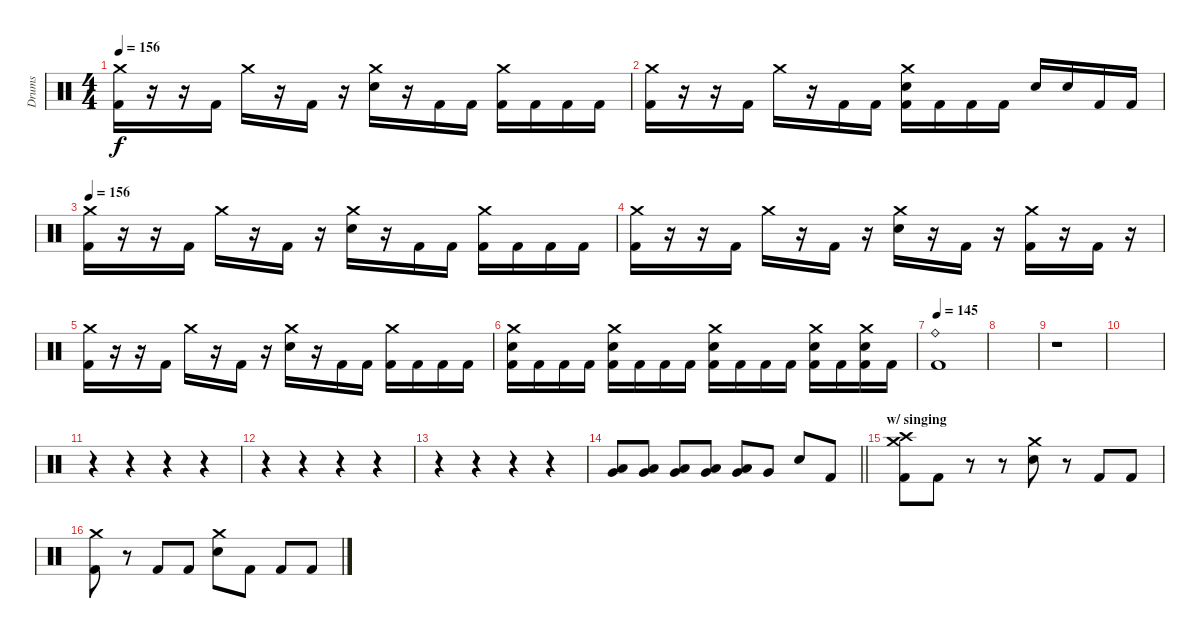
\track ("Drums" "Drums") {instrument percussion}
\staff {score}
\articulation defaults
\ts (4 4)
\tempo 156
\clef neutral
\ks c
("Crash medium (hit)" "Kick (hit) 2").16{dy f} r.16 r.16 "Kick (hit) 2".16 "Crash medium (hit)".16 r.16 "Kick (hit) 2".16 r.16 ("Crash medium (hit)" "Snare (hit) 2").16 r.16 "Kick (hit) 2".16 "Kick (hit) 2".16 ("Crash medium (hit)" "Kick (hit) 2").16 "Kick (hit) 2".16 "Kick (hit) 2".16 "Kick (hit) 2".16 |
("Crash medium (hit)" "Kick (hit) 2").16 r.16 r.16 "Kick (hit) 2".16 "Crash medium (hit)".16 r.16 "Kick (hit) 2".16 "Kick (hit) 2".16 ("Crash medium (hit)" "Snare (hit) 2" "Kick (hit) 2").16 "Kick (hit) 2".16 "Kick (hit) 2".16 "Kick (hit) 2".16 "Snare (hit) 2".16 "Snare (hit) 2".16 "Kick (hit) 2".16 "Kick (hit) 2".16 |
\tempo 156
("Crash medium (hit)" "Kick (hit) 2").16 r.16 r.16 "Kick (hit) 2".16 "Crash medium (hit)".16 r.16 "Kick (hit) 2".16 r.16 ("Crash medium (hit)" "Snare (hit) 2").16 r.16 "Kick (hit) 2".16 "Kick (hit) 2".16 ("Crash medium (hit)" "Kick (hit) 2").16 "Kick (hit) 2".16 "Kick (hit) 2".16 "Kick (hit) 2".16 |
("Crash medium (hit)" "Kick (hit) 2").16 r.16 r.16 "Kick (hit) 2".16 "Crash medium (hit)".16 r.16 "Kick (hit) 2".16 r.16 ("Crash medium (hit)" "Snare (hit) 2").16 r.16 "Kick (hit) 2".16 r.16 ("Crash medium (hit)" "Kick (hit) 2").16 r.16 "Kick (hit) 2".16 r.16 |
("Crash medium (hit)" "Kick (hit) 2").16 r.16 r.16 "Kick (hit) 2".16 "Crash medium (hit)".16 r.16 "Kick (hit) 2".16 r.16 ("Crash medium (hit)" "Snare (hit) 2").16 r.16 "Kick (hit) 2".16 "Kick (hit) 2".16 ("Crash medium (hit)" "Kick (hit) 2").16 "Kick (hit) 2".16 "Kick (hit) 2".16 "Kick (hit) 2".16 |
("Crash medium (hit)" "Snare (hit) 2" "Kick (hit) 2").16 "Kick (hit) 2".16 "Kick (hit) 2".16 "Kick (hit) 2".16 ("Crash medium (hit)" "Snare (hit) 2" "Kick (hit) 2").16 "Kick (hit) 2".16 "Kick (hit) 2".16 "Kick (hit) 2".16 ("Crash medium (hit)" "Snare (hit) 2" "Kick (hit) 2").16 "Kick (hit) 2".16 "Kick (hit) 2".16 "Kick (hit) 2".16 ("Crash medium (hit)" "Snare (hit) 2" "Kick (hit) 2").16 "Kick (hit) 2".16 ("Crash medium (hit)" "Snare (hit) 2" "Kick (hit) 2").16 "Kick (hit) 2".16 |
\tempo 145
("Ride (bell)" "Kick (hit) 2").1 |
|
r.1 |
|
r.4 r.4 r.4 r.4 |
r.4 r.4 r.4 r.4 |
r.4 r.4 r.4 r.4 |
\barLineRight lightlight
("Low Tom (hit)" "Very Low Tom (hit)").8 ("Low Tom (hit)" "Very Low Tom (hit)").8 ("Low Tom (hit)" "Very Low Tom (hit)").8 ("Low Tom (hit)" "Very Low Tom (hit)").8 ("Low Tom (hit)" "Very Low Tom (hit)").8 "Very Low Tom (hit)".8 "Snare (hit) 2".8 "Kick (hit) 2".8 |
\section ("" "w/ singing")
("Crash high (hit)" "Crash medium (hit)" "Kick (hit) 2").8 "Kick (hit) 2".8 r.8 r.8 ("Crash medium (hit)" "Snare (hit) 2").8 r.8 "Kick (hit) 2".8 "Kick (hit) 2".8 |
("Crash medium (hit)" "Kick (hit) 2").8 r.8 "Kick (hit) 2".8 "Kick (hit) 2".8 ("Crash medium (hit)" "Snare (hit) 2").8 "Kick (hit) 2".8 "Kick (hit) 2".8 "Kick (hit) 2".8
